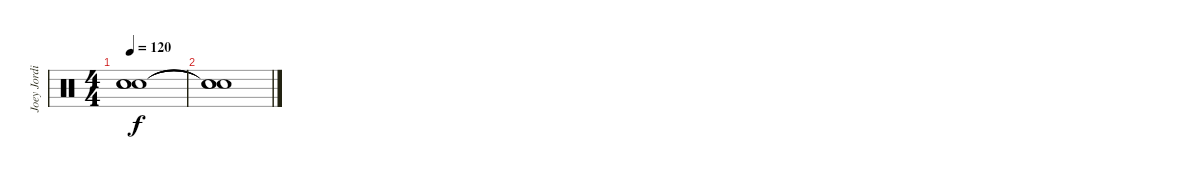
\track ("Joey Jordison" "Joey Jordi") {instrument percussion}
\staff {score}
\articulation defaults
\ts (4 4)
\tempo 120
\clef neutral
\ks c
("Snare (hit)"{t} "Snare (hit)"{t} "Snare (hit)"{t}).1{dy f} |
("Snare (hit)"{t} "Snare (hit)"{t} "Snare (hit)"{t}).1
